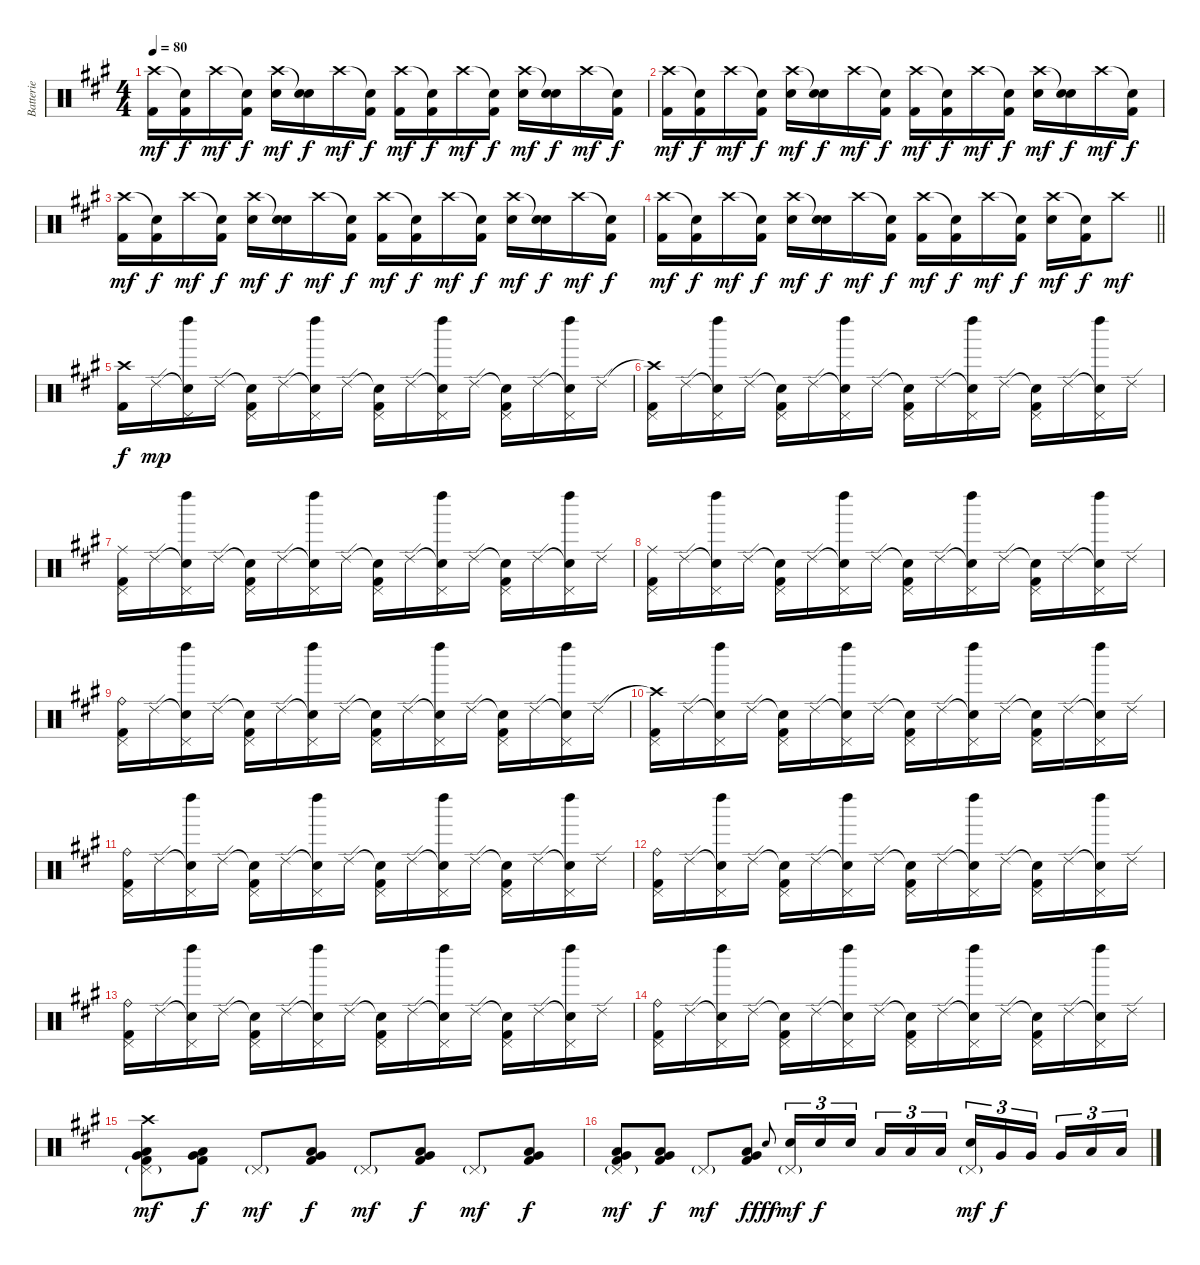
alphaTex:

\track ("Batterie" "Batterie") {instrument percussion}
\staff {score}
\articulation defaults
\ts (4 4)
\tempo 80
\clef neutral
\ks a
("Crash high (hit)" "Kick (hit) 2").16{dy mf} ("Snare (hit)"{t} "Kick (hit) 2").16{dy f} "Crash high (hit)".16{dy mf} ("Snare (hit)"{t} "Kick (hit) 2").16{dy f} ("Crash high (hit)" "Electric Snare (hit)").16{dy mf} ("Snare (hit)"{t} "Electric Snare (hit)").16{dy f} "Crash high (hit)".16{dy mf} ("Snare (hit)"{t} "Kick (hit) 2").16{dy f} ("Crash high (hit)" "Kick (hit) 2").16{dy mf} ("Snare (hit)"{t} "Kick (hit) 2").16{dy f} "Crash high (hit)".16{dy mf} ("Snare (hit)"{t} "Kick (hit) 2").16{dy f} ("Crash high (hit)" "Electric Snare (hit)").16{dy mf} ("Snare (hit)"{t} "Electric Snare (hit)").16{dy f} "Crash high (hit)".16{dy mf} ("Snare (hit)"{t} "Kick (hit) 2").16{dy f} |
("Crash high (hit)" "Kick (hit) 2").16{dy mf} ("Snare (hit)"{t} "Kick (hit) 2").16{dy f} "Crash high (hit)".16{dy mf} ("Snare (hit)"{t} "Kick (hit) 2").16{dy f} ("Crash high (hit)" "Electric Snare (hit)").16{dy mf} ("Snare (hit)"{t} "Electric Snare (hit)").16{dy f} "Crash high (hit)".16{dy mf} ("Snare (hit)"{t} "Kick (hit) 2").16{dy f} ("Crash high (hit)" "Kick (hit) 2").16{dy mf} ("Snare (hit)"{t} "Kick (hit) 2").16{dy f} "Crash high (hit)".16{dy mf} ("Snare (hit)"{t} "Kick (hit) 2").16{dy f} ("Crash high (hit)" "Electric Snare (hit)").16{dy mf} ("Snare (hit)"{t} "Electric Snare (hit)").16{dy f} "Crash high (hit)".16{dy mf} ("Snare (hit)"{t} "Kick (hit) 2").16{dy f} |
("Crash high (hit)" "Kick (hit) 2").16{dy mf} ("Snare (hit)"{t} "Kick (hit) 2").16{dy f} "Crash high (hit)".16{dy mf} ("Snare (hit)"{t} "Kick (hit) 2").16{dy f} ("Crash high (hit)" "Electric Snare (hit)").16{dy mf} ("Snare (hit)"{t} "Electric Snare (hit)").16{dy f} "Crash high (hit)".16{dy mf} ("Snare (hit)"{t} "Kick (hit) 2").16{dy f} ("Crash high (hit)" "Kick (hit) 2").16{dy mf} ("Snare (hit)"{t} "Kick (hit) 2").16{dy f} "Crash high (hit)".16{dy mf} ("Snare (hit)"{t} "Kick (hit) 2").16{dy f} ("Crash high (hit)" "Electric Snare (hit)").16{dy mf} ("Snare (hit)"{t} "Electric Snare (hit)").16{dy f} "Crash high (hit)".16{dy mf} ("Snare (hit)"{t} "Kick (hit) 2").16{dy f} |
\barLineRight lightlight
("Crash high (hit)" "Kick (hit) 2").16{dy mf} ("Snare (hit)"{t} "Kick (hit) 2").16{dy f} "Crash high (hit)".16{dy mf} ("Snare (hit)"{t} "Kick (hit) 2").16{dy f} ("Crash high (hit)" "Electric Snare (hit)").16{dy mf} ("Snare (hit)"{t} "Electric Snare (hit)").16{dy f} "Crash high (hit)".16{dy mf} ("Snare (hit)"{t} "Kick (hit) 2").16{dy f} ("Crash high (hit)" "Kick (hit) 2").16{dy mf} ("Snare (hit)"{t} "Kick (hit) 2").16{dy f} "Crash high (hit)".16{dy mf} ("Snare (hit)"{t} "Kick (hit) 2").16{dy f} ("Crash high (hit)" "Electric Snare (hit)").16{dy mf} ("Snare (hit)"{t} "Kick (hit) 2").16{dy f} "Crash high (hit)".8{dy mf} |
("Crash high (hit)" "Kick (hit) 2").16{dy f} "Ride (edge) 2".16{dy mp} ("Snare (hit)"{t} "Pedal Hi-Hat (hit)" "Left Maraca (hit)").16 "Ride (edge) 2".16 ("Snare (hit)"{t} "Pedal Hi-Hat (hit)" "Kick (hit) 2").16 "Ride (edge) 2".16 ("Snare (hit)"{t} "Pedal Hi-Hat (hit)" "Left Maraca (hit)").16 "Ride (edge) 2".16 ("Snare (hit)"{t} "Pedal Hi-Hat (hit)" "Kick (hit) 2").16 "Ride (edge) 2".16 ("Snare (hit)"{t} "Pedal Hi-Hat (hit)" "Left Maraca (hit)").16 "Ride (edge) 2".16 ("Snare (hit)"{t} "Pedal Hi-Hat (hit)" "Kick (hit) 2").16 "Ride (edge) 2".16 ("Snare (hit)"{t} "Pedal Hi-Hat (hit)" "Left Maraca (hit)").16 "Ride (edge) 2".16 |
("Crash high (hit)"{t} "Pedal Hi-Hat (hit)" "Kick (hit) 2").16 "Ride (edge) 2".16 ("Snare (hit)"{t} "Pedal Hi-Hat (hit)" "Left Maraca (hit)").16 "Ride (edge) 2".16 ("Snare (hit)"{t} "Pedal Hi-Hat (hit)" "Kick (hit) 2").16 "Ride (edge) 2".16 ("Snare (hit)"{t} "Pedal Hi-Hat (hit)" "Left Maraca (hit)").16 "Ride (edge) 2".16 ("Snare (hit)"{t} "Pedal Hi-Hat (hit)" "Kick (hit) 2").16 "Ride (edge) 2".16 ("Snare (hit)"{t} "Pedal Hi-Hat (hit)" "Left Maraca (hit)").16 "Ride (edge) 2".16 ("Snare (hit)"{t} "Pedal Hi-Hat (hit)" "Kick (hit) 2").16 "Ride (edge) 2".16 ("Snare (hit)"{t} "Pedal Hi-Hat (hit)" "Left Maraca (hit)").16 "Ride (edge) 2".16 |
("Ride (middle)" "Pedal Hi-Hat (hit)" "Kick (hit) 2").16 "Ride (edge) 2".16 ("Snare (hit)"{t} "Pedal Hi-Hat (hit)" "Left Maraca (hit)").16 "Ride (edge) 2".16 ("Snare (hit)"{t} "Pedal Hi-Hat (hit)" "Kick (hit) 2").16 "Ride (edge) 2".16 ("Snare (hit)"{t} "Pedal Hi-Hat (hit)" "Left Maraca (hit)").16 "Ride (edge) 2".16 ("Snare (hit)"{t} "Pedal Hi-Hat (hit)" "Kick (hit) 2").16 "Ride (edge) 2".16 ("Snare (hit)"{t} "Pedal Hi-Hat (hit)" "Left Maraca (hit)").16 "Ride (edge) 2".16 ("Snare (hit)"{t} "Pedal Hi-Hat (hit)" "Kick (hit) 2").16 "Ride (edge) 2".16 ("Snare (hit)"{t} "Pedal Hi-Hat (hit)" "Left Maraca (hit)").16 "Ride (edge) 2".16 |
("Ride (middle)" "Pedal Hi-Hat (hit)" "Kick (hit) 2").16 "Ride (edge) 2".16 ("Snare (hit)"{t} "Pedal Hi-Hat (hit)" "Left Maraca (hit)").16 "Ride (edge) 2".16 ("Snare (hit)"{t} "Pedal Hi-Hat (hit)" "Kick (hit) 2").16 "Ride (edge) 2".16 ("Snare (hit)"{t} "Pedal Hi-Hat (hit)" "Left Maraca (hit)").16 "Ride (edge) 2".16 ("Snare (hit)"{t} "Pedal Hi-Hat (hit)" "Kick (hit) 2").16 "Ride (edge) 2".16 ("Snare (hit)"{t} "Pedal Hi-Hat (hit)" "Left Maraca (hit)").16 "Ride (edge) 2".16 ("Snare (hit)"{t} "Pedal Hi-Hat (hit)" "Kick (hit) 2").16 "Ride (edge) 2".16 ("Snare (hit)"{t} "Pedal Hi-Hat (hit)" "Left Maraca (hit)").16 "Ride (edge) 2".16 |
("Ride (bell)" "Pedal Hi-Hat (hit)" "Kick (hit) 2").16 "Ride (edge) 2".16 ("Snare (hit)"{t} "Pedal Hi-Hat (hit)" "Left Maraca (hit)").16 "Ride (edge) 2".16 ("Snare (hit)"{t} "Pedal Hi-Hat (hit)" "Kick (hit) 2").16 "Ride (edge) 2".16 ("Snare (hit)"{t} "Pedal Hi-Hat (hit)" "Left Maraca (hit)").16 "Ride (edge) 2".16 ("Snare (hit)"{t} "Pedal Hi-Hat (hit)" "Kick (hit) 2").16 "Ride (edge) 2".16 ("Snare (hit)"{t} "Pedal Hi-Hat (hit)" "Left Maraca (hit)").16 "Ride (edge) 2".16 ("Snare (hit)"{t} "Pedal Hi-Hat (hit)" "Kick (hit) 2").16 "Ride (edge) 2".16 ("Snare (hit)"{t} "Pedal Hi-Hat (hit)" "Left Maraca (hit)").16 "Ride (edge) 2".16 |
("Crash high (hit)"{t} "Pedal Hi-Hat (hit)" "Kick (hit) 2").16 "Ride (edge) 2".16 ("Snare (hit)"{t} "Pedal Hi-Hat (hit)" "Left Maraca (hit)").16 "Ride (edge) 2".16 ("Snare (hit)"{t} "Pedal Hi-Hat (hit)" "Kick (hit) 2").16 "Ride (edge) 2".16 ("Snare (hit)"{t} "Pedal Hi-Hat (hit)" "Left Maraca (hit)").16 "Ride (edge) 2".16 ("Snare (hit)"{t} "Pedal Hi-Hat (hit)" "Kick (hit) 2").16 "Ride (edge) 2".16 ("Snare (hit)"{t} "Pedal Hi-Hat (hit)" "Left Maraca (hit)").16 "Ride (edge) 2".16 ("Snare (hit)"{t} "Pedal Hi-Hat (hit)" "Kick (hit) 2").16 "Ride (edge) 2".16 ("Snare (hit)"{t} "Pedal Hi-Hat (hit)" "Left Maraca (hit)").16 "Ride (edge) 2".16 |
("Ride (bell)" "Pedal Hi-Hat (hit)" "Kick (hit) 2").16 "Ride (edge) 2".16 ("Snare (hit)"{t} "Pedal Hi-Hat (hit)" "Left Maraca (hit)").16 "Ride (edge) 2".16 ("Snare (hit)"{t} "Pedal Hi-Hat (hit)" "Kick (hit) 2").16 "Ride (edge) 2".16 ("Snare (hit)"{t} "Pedal Hi-Hat (hit)" "Left Maraca (hit)").16 "Ride (edge) 2".16 ("Snare (hit)"{t} "Pedal Hi-Hat (hit)" "Kick (hit) 2").16 "Ride (edge) 2".16 ("Snare (hit)"{t} "Pedal Hi-Hat (hit)" "Left Maraca (hit)").16 "Ride (edge) 2".16 ("Snare (hit)"{t} "Pedal Hi-Hat (hit)" "Kick (hit) 2").16 "Ride (edge) 2".16 ("Snare (hit)"{t} "Pedal Hi-Hat (hit)" "Left Maraca (hit)").16 "Ride (edge) 2".16 |
("Ride (bell)" "Pedal Hi-Hat (hit)" "Kick (hit) 2").16 "Ride (edge) 2".16 ("Snare (hit)"{t} "Pedal Hi-Hat (hit)" "Left Maraca (hit)").16 "Ride (edge) 2".16 ("Snare (hit)"{t} "Pedal Hi-Hat (hit)" "Kick (hit) 2").16 "Ride (edge) 2".16 ("Snare (hit)"{t} "Pedal Hi-Hat (hit)" "Left Maraca (hit)").16 "Ride (edge) 2".16 ("Snare (hit)"{t} "Pedal Hi-Hat (hit)" "Kick (hit) 2").16 "Ride (edge) 2".16 ("Snare (hit)"{t} "Pedal Hi-Hat (hit)" "Left Maraca (hit)").16 "Ride (edge) 2".16 ("Snare (hit)"{t} "Pedal Hi-Hat (hit)" "Kick (hit) 2").16 "Ride (edge) 2".16 ("Snare (hit)"{t} "Pedal Hi-Hat (hit)" "Left Maraca (hit)").16 "Ride (edge) 2".16 |
("Ride (bell)" "Pedal Hi-Hat (hit)" "Kick (hit) 2").16 "Ride (edge) 2".16 ("Snare (hit)"{t} "Pedal Hi-Hat (hit)" "Left Maraca (hit)").16 "Ride (edge) 2".16 ("Snare (hit)"{t} "Pedal Hi-Hat (hit)" "Kick (hit) 2").16 "Ride (edge) 2".16 ("Snare (hit)"{t} "Pedal Hi-Hat (hit)" "Left Maraca (hit)").16 "Ride (edge) 2".16 ("Snare (hit)"{t} "Pedal Hi-Hat (hit)" "Kick (hit) 2").16 "Ride (edge) 2".16 ("Snare (hit)"{t} "Pedal Hi-Hat (hit)" "Left Maraca (hit)").16 "Ride (edge) 2".16 ("Snare (hit)"{t} "Pedal Hi-Hat (hit)" "Kick (hit) 2").16 "Ride (edge) 2".16 ("Snare (hit)"{t} "Pedal Hi-Hat (hit)" "Left Maraca (hit)").16 "Ride (edge) 2".16 |
("Ride (bell)" "Pedal Hi-Hat (hit)" "Kick (hit) 2").16 "Ride (edge) 2".16 ("Snare (hit)"{t} "Pedal Hi-Hat (hit)" "Left Maraca (hit)").16 "Ride (edge) 2".16 ("Snare (hit)"{t} "Pedal Hi-Hat (hit)" "Kick (hit) 2").16 "Ride (edge) 2".16 ("Snare (hit)"{t} "Pedal Hi-Hat (hit)" "Left Maraca (hit)").16 "Ride (edge) 2".16 ("Snare (hit)"{t} "Pedal Hi-Hat (hit)" "Kick (hit) 2").16 "Ride (edge) 2".16 ("Snare (hit)"{t} "Pedal Hi-Hat (hit)" "Left Maraca (hit)").16 "Ride (edge) 2".16 ("Snare (hit)"{t} "Pedal Hi-Hat (hit)" "Kick (hit) 2").16 "Ride (edge) 2".16 ("Snare (hit)"{t} "Pedal Hi-Hat (hit)" "Left Maraca (hit)").16 "Ride (edge) 2".16 |
("Crash high (hit)" "Pedal Hi-Hat (hit)"{g} "Low Floor Tom (hit)" "Very Low Tom (hit)" "Kick (hit) 2").8{dy mf} ("Low Floor Tom (hit)" "Very Low Tom (hit)" "Kick (hit) 2").8{dy f} "Pedal Hi-Hat (hit)"{g}.8{dy mf} ("Low Floor Tom (hit)" "Very Low Tom (hit)" "Kick (hit) 2").8{dy f} "Pedal Hi-Hat (hit)"{g}.8{dy mf} ("Low Floor Tom (hit)" "Very Low Tom (hit)" "Kick (hit) 2").8{dy f} "Pedal Hi-Hat (hit)"{g}.8{dy mf} ("Low Floor Tom (hit)" "Very Low Tom (hit)" "Kick (hit) 2").8{dy f} |
("Pedal Hi-Hat (hit)"{g} "Low Floor Tom (hit)" "Very Low Tom (hit)" "Kick (hit) 2").8{dy mf} ("Low Floor Tom (hit)" "Very Low Tom (hit)" "Kick (hit) 2").8{dy f} "Pedal Hi-Hat (hit)"{g}.8{dy mf} ("Low Floor Tom (hit)" "Very Low Tom (hit)" "Kick (hit) 2").8{dy f} "Electric Snare (hit)".8{gr onbeat dy fff} ("Pedal Hi-Hat (hit)"{g} "Electric Snare (hit)").16{tu (3 2) dy mf} "Electric Snare (hit)".16{tu (3 2) dy f} "Electric Snare (hit)".16{tu (3 2) beam splitsecondary} "Low Tom (hit)".16{tu (3 2)} "Low Tom (hit)".16{tu (3 2)} "Low Tom (hit)".16{tu (3 2)} ("Pedal Hi-Hat (hit)"{g} "Electric Snare (hit)").16{tu (3 2) dy mf} "Very Low Tom (hit)".16{tu (3 2) dy f} "Very Low Tom (hit)".16{tu (3 2) beam splitsecondary} "Very Low Tom (hit)".16{tu (3 2)} "Low Floor Tom (hit)".16{tu (3 2)} "Low Floor Tom (hit)".16{tu (3 2)}
